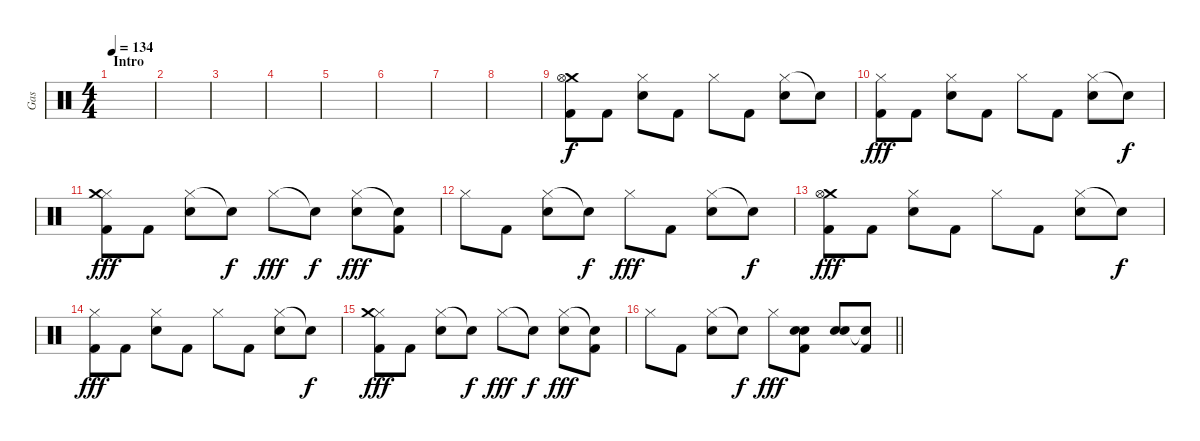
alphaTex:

\track ("Gas" "Gas") {instrument percussion}
\staff {score}
\articulation defaults
\ts (4 4)
\section ("" "Intro")
\tempo 134
\clef neutral
\ks c
|
|
|
|
|
|
|
|
("Crash medium (hit)" "Hi-Hat (open)" "Kick (hit) 2").8 "Kick (hit) 2".8 ("Hi-Hat (closed)" "Snare (hit) 2").8 "Kick (hit) 2".8 "Hi-Hat (closed)".8 "Kick (hit) 2".8 ("Hi-Hat (closed)" "Snare (hit) 2").8 "Snare (hit)"{t}.8{dy f} |
("Hi-Hat (closed)" "Kick (hit) 2").8{dy fff} "Kick (hit) 2".8 ("Hi-Hat (closed)" "Snare (hit) 2").8 "Kick (hit) 2".8 "Hi-Hat (closed)".8 "Kick (hit) 2".8 ("Hi-Hat (closed)" "Snare (hit) 2").8 "Snare (hit)"{t}.8{dy f} |
("Hi-Hat (closed)" "Crash medium (hit)" "Kick (hit) 2").8{dy fff} "Kick (hit) 2".8 ("Hi-Hat (closed)" "Snare (hit) 2").8 "Snare (hit)"{t}.8{dy f} "Hi-Hat (closed)".8{dy fff} "Snare (hit)"{t}.8{dy f} ("Hi-Hat (closed)" "Snare (hit) 2").8{dy fff} ("Snare (hit)"{t} "Kick (hit) 2").8 |
"Hi-Hat (closed)".8 "Kick (hit) 2".8 ("Hi-Hat (closed)" "Snare (hit) 2").8 "Snare (hit)"{t}.8{dy f} "Hi-Hat (closed)".8{dy fff} "Kick (hit) 2".8 ("Hi-Hat (closed)" "Snare (hit) 2").8 "Snare (hit)"{t}.8{dy f} |
("Crash medium (hit)" "Hi-Hat (open)" "Kick (hit) 2").8{dy fff} "Kick (hit) 2".8 ("Hi-Hat (closed)" "Snare (hit) 2").8 "Kick (hit) 2".8 "Hi-Hat (closed)".8 "Kick (hit) 2".8 ("Hi-Hat (closed)" "Snare (hit) 2").8 "Snare (hit)"{t}.8{dy f} |
("Hi-Hat (closed)" "Kick (hit) 2").8{dy fff} "Kick (hit) 2".8 ("Hi-Hat (closed)" "Snare (hit) 2").8 "Kick (hit) 2".8 "Hi-Hat (closed)".8 "Kick (hit) 2".8 ("Hi-Hat (closed)" "Snare (hit) 2").8 "Snare (hit)"{t}.8{dy f} |
("Hi-Hat (closed)" "Crash medium (hit)" "Kick (hit) 2").8{dy fff} "Kick (hit) 2".8 ("Hi-Hat (closed)" "Snare (hit) 2").8 "Snare (hit)"{t}.8{dy f} "Hi-Hat (closed)".8{dy fff} "Snare (hit)"{t}.8{dy f} ("Hi-Hat (closed)" "Snare (hit) 2").8{dy fff} ("Snare (hit)"{t} "Kick (hit) 2").8 |
\barLineRight lightlight "Hi-Hat (closed)".8 "Kick (hit) 2".8
("Hi-Hat (closed)" "Snare (hit) 2").8 "Snare (hit)"{t}.8{dy f} "Hi-Hat (closed)".8{dy fff} ("Snare (hit) 2" "Snare (hit) 2" "Kick (hit) 2").8 ("Snare (hit) 2" "Snare (hit) 2").8 ("Snare (hit)"{t} "Kick (hit) 2").8
